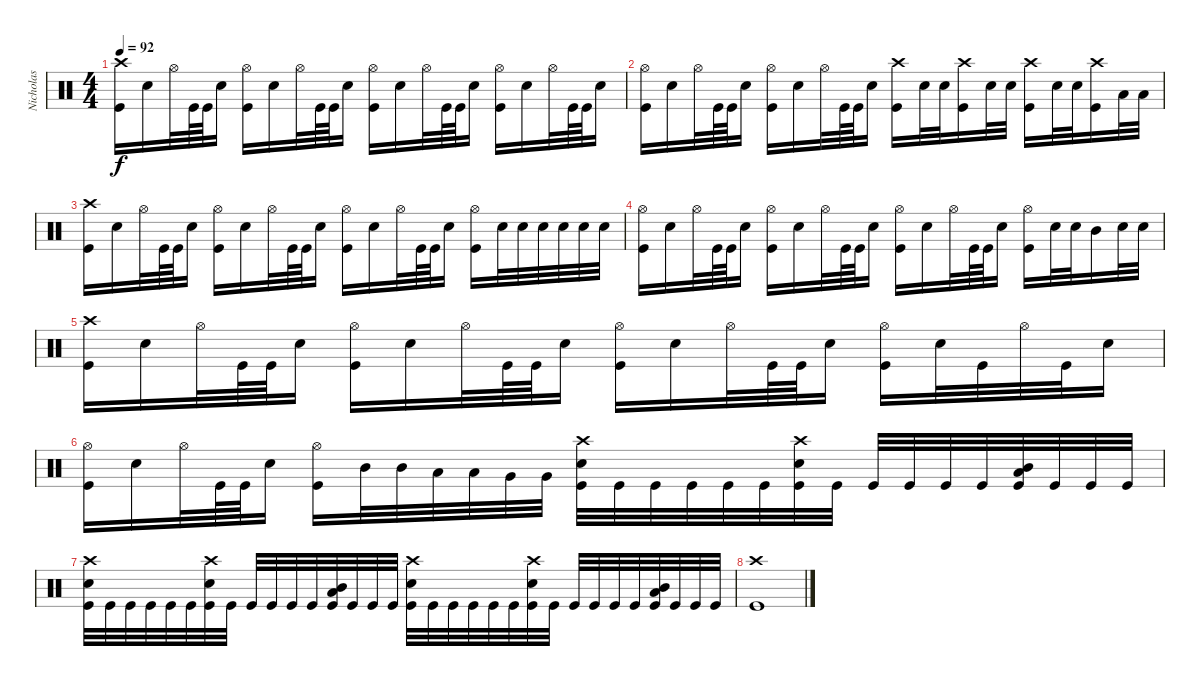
\track ("Nicholas" "Nicholas") {instrument percussion}
\staff {score}
\articulation defaults
\ts (4 4)
\tempo 92
\clef neutral
\ks c
("Crash high (hit)" "Kick (hit)").16{dy f} "Electric Snare (hit)".16 "Hi-Hat (open)".32 "Kick (hit)".64 "Kick (hit)".64 "Electric Snare (hit)".16 ("Hi-Hat (open)" "Kick (hit)").16 "Electric Snare (hit)".16 "Hi-Hat (open)".32 "Kick (hit)".64 "Kick (hit)".64 "Electric Snare (hit)".16 ("Hi-Hat (open)" "Kick (hit)").16 "Electric Snare (hit)".16 "Hi-Hat (open)".32 "Kick (hit)".64 "Kick (hit)".64 "Electric Snare (hit)".16 ("Hi-Hat (open)" "Kick (hit)").16 "Electric Snare (hit)".16 "Hi-Hat (open)".32 "Kick (hit)".64 "Kick (hit)".64 "Electric Snare (hit)".16 |
("Hi-Hat (open)" "Kick (hit)").16 "Electric Snare (hit)".16 "Hi-Hat (open)".32 "Kick (hit)".64 "Kick (hit)".64 "Electric Snare (hit)".16 ("Hi-Hat (open)" "Kick (hit)").16 "Electric Snare (hit)".16 "Hi-Hat (open)".32 "Kick (hit)".64 "Kick (hit)".64 "Electric Snare (hit)".16 ("Crash high (hit)" "Kick (hit)").16 "Electric Snare (hit)".32 "Electric Snare (hit)".32 ("Crash high (hit)" "Kick (hit)").16 "Electric Snare (hit)".32 "Electric Snare (hit)".32 ("Crash high (hit)" "Kick (hit)").16 "Electric Snare (hit)".32 "Electric Snare (hit)".32 ("Crash high (hit)" "Kick (hit)").16 "Low Tom (hit)".32 "Low Tom (hit)".32 |
("Crash high (hit)" "Kick (hit)").16 "Electric Snare (hit)".16 "Hi-Hat (open)".32 "Kick (hit)".64 "Kick (hit)".64 "Electric Snare (hit)".16 ("Hi-Hat (open)" "Kick (hit)").16 "Electric Snare (hit)".16 "Hi-Hat (open)".32 "Kick (hit)".64 "Kick (hit)".64 "Electric Snare (hit)".16 ("Hi-Hat (open)" "Kick (hit)").16 "Electric Snare (hit)".16 "Hi-Hat (open)".32 "Kick (hit)".64 "Kick (hit)".64 "Electric Snare (hit)".16 ("Hi-Hat (open)" "Kick (hit)").16 "Electric Snare (hit)".32 "Electric Snare (hit)".32 "Electric Snare (hit)".32 "Electric Snare (hit)".32 "Electric Snare (hit)".32 "Electric Snare (hit)".32 |
("Hi-Hat (open)" "Kick (hit)").16 "Electric Snare (hit)".16 "Hi-Hat (open)".32 "Kick (hit)".64 "Kick (hit)".64 "Electric Snare (hit)".16 ("Hi-Hat (open)" "Kick (hit)").16 "Electric Snare (hit)".16 "Hi-Hat (open)".32 "Kick (hit)".64 "Kick (hit)".64 "Electric Snare (hit)".16 ("Hi-Hat (open)" "Kick (hit)").16 "Electric Snare (hit)".16 "Hi-Hat (open)".32 "Kick (hit)".64 "Kick (hit)".64 "Electric Snare (hit)".16 ("Hi-Hat (open)" "Kick (hit)").16 "Electric Snare (hit)".32 "Electric Snare (hit)".32 "Mid Tom (hit)".16 "Electric Snare (hit)".32 "Electric Snare (hit)".32 |
("Crash high (hit)" "Kick (hit)").16 "Electric Snare (hit)".16 "Hi-Hat (open)".32 "Kick (hit)".64 "Kick (hit)".64 "Electric Snare (hit)".16 ("Hi-Hat (open)" "Kick (hit)").16 "Electric Snare (hit)".16 "Hi-Hat (open)".32 "Kick (hit)".64 "Kick (hit)".64 "Electric Snare (hit)".16 ("Hi-Hat (open)" "Kick (hit)").16 "Electric Snare (hit)".16 "Hi-Hat (open)".32 "Kick (hit)".64 "Kick (hit)".64 "Electric Snare (hit)".16 ("Hi-Hat (open)" "Kick (hit)").16 "Electric Snare (hit)".32 "Kick (hit)".32 "Hi-Hat (open)".32 "Kick (hit)".32 "Electric Snare (hit)".16 |
("Hi-Hat (open)" "Kick (hit)").16 "Electric Snare (hit)".16 "Hi-Hat (open)".32 "Kick (hit)".64 "Kick (hit)".64 "Electric Snare (hit)".16 ("Hi-Hat (open)" "Kick (hit)").16 "Mid Tom (hit)".32 "Mid Tom (hit)".32 "Low Tom (hit)".32 "Low Tom (hit)".32 "Very Low Tom (hit)".32 "Very Low Tom (hit)".32 ("Crash high (hit)" "Electric Snare (hit)" "Kick (hit)").32 "Kick (hit)".32 "Kick (hit)".32 "Kick (hit)".32 "Kick (hit)".32 "Kick (hit)".32 ("Crash high (hit)" "Electric Snare (hit)" "Kick (hit)").32 "Kick (hit)".32 "Kick (hit)".32 "Kick (hit)".32 "Kick (hit)".32 "Kick (hit)".32 ("Mid Tom (hit)" "Low Tom (hit)" "Kick (hit)").32{bd 60} "Kick (hit)".32 "Kick (hit)".32 "Kick (hit)".32 |
("Crash high (hit)" "Electric Snare (hit)" "Kick (hit)").32 "Kick (hit)".32 "Kick (hit)".32 "Kick (hit)".32 "Kick (hit)".32 "Kick (hit)".32 ("Crash high (hit)" "Electric Snare (hit)" "Kick (hit)").32 "Kick (hit)".32 "Kick (hit)".32 "Kick (hit)".32 "Kick (hit)".32 "Kick (hit)".32 ("Mid Tom (hit)" "Low Tom (hit)" "Kick (hit)").32{bd 60} "Kick (hit)".32 "Kick (hit)".32 "Kick (hit)".32 ("Crash high (hit)" "Electric Snare (hit)" "Kick (hit)").32 "Kick (hit)".32 "Kick (hit)".32 "Kick (hit)".32 "Kick (hit)".32 "Kick (hit)".32 ("Crash high (hit)" "Electric Snare (hit)" "Kick (hit)").32 "Kick (hit)".32 "Kick (hit)".32 "Kick (hit)".32 "Kick (hit)".32 "Kick (hit)".32 ("Mid Tom (hit)" "Low Tom (hit)" "Kick (hit)").32{bd 60} "Kick (hit)".32 "Kick (hit)".32 "Kick (hit)".32 |
("Crash high (hit)" "Kick (hit)").1
